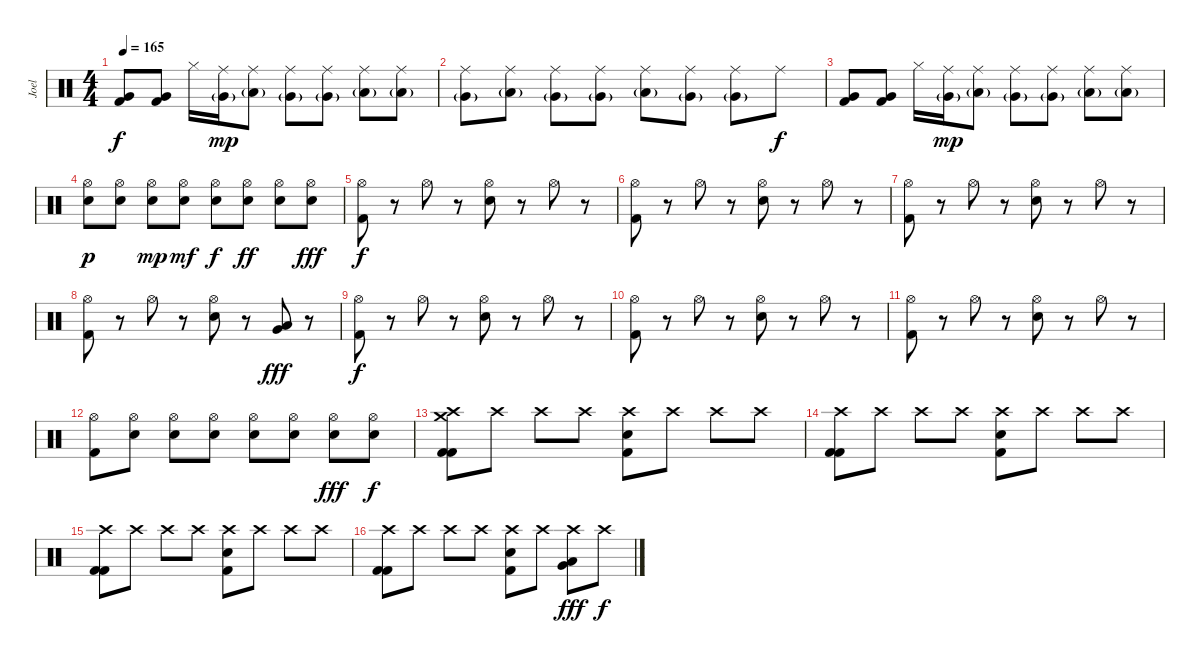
\track ("Joel" "Joel") {instrument percussion}
\staff {score}
\articulation defaults
\ts (4 4)
\tempo 165
\clef neutral
\ks c
("Very Low Tom (hit)" "Kick (hit) 2").8{dy f} ("Very Low Tom (hit)" "Kick (hit) 2").8 "Hi-Hat (closed)".16 ("Ride (middle)" "Very Low Tom (hit)"{g}).16{dy mp} ("Ride (middle)" "Low Tom (hit)"{g}).8 ("Ride (middle)" "Very Low Tom (hit)"{g}).8 ("Ride (middle)" "Very Low Tom (hit)"{g}).8 ("Ride (middle)" "Low Tom (hit)"{g}).8 ("Ride (middle)" "Low Floor Tom (hit)"{g}).8 |
("Ride (middle)" "Very Low Tom (hit)"{g}).8 ("Ride (middle)" "Low Tom (hit)"{g}).8 ("Ride (middle)" "Very Low Tom (hit)"{g}).8 ("Ride (middle)" "Very Low Tom (hit)"{g}).8 ("Ride (middle)" "Low Tom (hit)"{g}).8 ("Ride (middle)" "Very Low Tom (hit)"{g}).8 ("Ride (middle)" "Very Low Tom (hit)"{g}).8 "Ride (middle)".8{dy f} |
("Very Low Tom (hit)" "Kick (hit) 2").8 ("Very Low Tom (hit)" "Kick (hit) 2").8 "Hi-Hat (closed)".16 ("Ride (middle)" "Very Low Tom (hit)"{g}).16{dy mp} ("Ride (middle)" "Low Tom (hit)"{g}).8 ("Ride (middle)" "Very Low Tom (hit)"{g}).8 ("Ride (middle)" "Very Low Tom (hit)"{g}).8 ("Ride (middle)" "Low Tom (hit)"{g}).8 ("Ride (middle)" "Low Floor Tom (hit)"{g}).8 |
("Hi-Hat (open)" "Electric Snare (hit)").8{dy p} ("Hi-Hat (open)" "Electric Snare (hit)").8 ("Hi-Hat (open)" "Electric Snare (hit)").8{dy mp} ("Hi-Hat (open)" "Electric Snare (hit)").8{dy mf} ("Hi-Hat (open)" "Electric Snare (hit)").8{dy f} ("Hi-Hat (open)" "Electric Snare (hit)").8{dy ff} ("Hi-Hat (open)" "Electric Snare (hit)").8 ("Hi-Hat (open)" "Electric Snare (hit)").8{dy fff} |
("Hi-Hat (open)" "Kick (hit) 2").8{dy f} r.8 "Hi-Hat (open)".8 r.8 ("Hi-Hat (open)" "Electric Snare (hit)").8 r.8 "Hi-Hat (open)".8 r.8 |
("Hi-Hat (open)" "Kick (hit) 2").8 r.8 "Hi-Hat (open)".8 r.8 ("Hi-Hat (open)" "Electric Snare (hit)").8 r.8 "Hi-Hat (open)".8 r.8 |
("Hi-Hat (open)" "Kick (hit) 2").8 r.8 "Hi-Hat (open)".8 r.8 ("Hi-Hat (open)" "Electric Snare (hit)").8 r.8 "Hi-Hat (open)".8 r.8 |
("Hi-Hat (open)" "Kick (hit) 2").8 r.8 "Hi-Hat (open)".8 r.8 ("Hi-Hat (open)" "Electric Snare (hit)").8 r.8 ("Very Low Tom (hit)" "Low Floor Tom (hit)").8{dy fff} r.8 |
("Hi-Hat (open)" "Kick (hit) 2").8{dy f} r.8 "Hi-Hat (open)".8 r.8 ("Hi-Hat (open)" "Electric Snare (hit)").8 r.8 "Hi-Hat (open)".8 r.8 |
("Hi-Hat (open)" "Kick (hit) 2").8 r.8 "Hi-Hat (open)".8 r.8 ("Hi-Hat (open)" "Electric Snare (hit)").8 r.8 "Hi-Hat (open)".8 r.8 |
("Hi-Hat (open)" "Kick (hit) 2").8 r.8 "Hi-Hat (open)".8 r.8 ("Hi-Hat (open)" "Electric Snare (hit)").8 r.8 "Hi-Hat (open)".8 r.8 |
("Hi-Hat (open)" "Kick (hit) 2").8 ("Hi-Hat (open)" "Electric Snare (hit)").8 ("Hi-Hat (open)" "Electric Snare (hit)").8 ("Hi-Hat (open)" "Electric Snare (hit)").8 ("Hi-Hat (open)" "Electric Snare (hit)").8 ("Hi-Hat (open)" "Electric Snare (hit)").8 ("Hi-Hat (open)" "Electric Snare (hit)").8{dy fff} ("Hi-Hat (open)" "Electric Snare (hit)").8{dy f} |
("Crash high (hit)" "Crash medium (hit)" "Kick (hit) 2" "Kick (hit) 2").8 "Crash high (hit)".8 "Crash high (hit)".8 "Crash high (hit)".8 ("Crash high (hit)" "Kick (hit) 2" "Electric Snare (hit)").8 "Crash high (hit)".8 "Crash high (hit)".8 "Crash high (hit)".8 |
("Crash high (hit)" "Kick (hit) 2" "Kick (hit) 2").8 "Crash high (hit)".8 "Crash high (hit)".8 "Crash high (hit)".8 ("Crash high (hit)" "Kick (hit) 2" "Electric Snare (hit)").8 "Crash high (hit)".8 "Crash high (hit)".8 "Crash high (hit)".8 |
("Crash high (hit)" "Kick (hit) 2" "Kick (hit) 2").8 "Crash high (hit)".8 "Crash high (hit)".8 "Crash high (hit)".8 ("Crash high (hit)" "Kick (hit) 2" "Electric Snare (hit)").8 "Crash high (hit)".8 "Crash high (hit)".8 "Crash high (hit)".8 |
("Crash high (hit)" "Kick (hit) 2" "Kick (hit) 2").8 "Crash high (hit)".8 "Crash high (hit)".8 "Crash high (hit)".8 ("Crash high (hit)" "Kick (hit) 2" "Electric Snare (hit)").8 "Crash high (hit)".8 ("Crash high (hit)" "Very Low Tom (hit)" "Low Floor Tom (hit)").8{dy fff} "Crash high (hit)".8{dy f}
